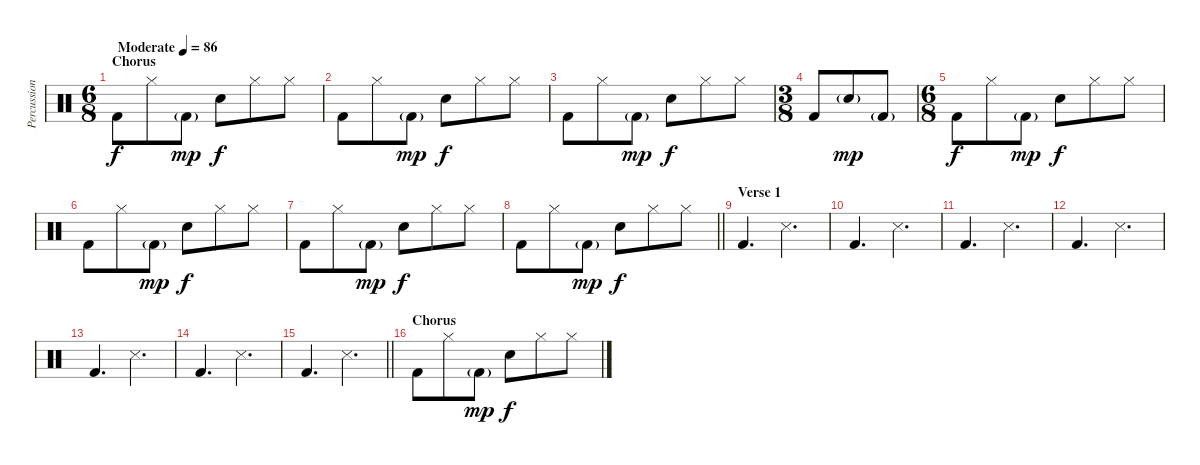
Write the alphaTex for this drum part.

\track ("Percussion" "Percussion") {instrument percussion}
\staff {score}
\articulation defaults
\ts (6 8)
\section ("" "Chorus")
\tempo (86 "Moderate")
\clef neutral
\ks c "Kick (hit) 2".8{dy f} "Hi-Hat (closed)".8 "Kick (hit) 2"{g}.8{dy mp} "Snare (hit) 2".8{dy f} "Hi-Hat (closed)".8 "Hi-Hat (closed)".8
|
"Kick (hit) 2".8 "Hi-Hat (closed)".8 "Kick (hit) 2"{g}.8{dy mp} "Snare (hit) 2".8{dy f} "Hi-Hat (closed)".8 "Hi-Hat (closed)".8 |
"Kick (hit) 2".8 "Hi-Hat (closed)".8 "Kick (hit) 2"{g}.8{dy mp} "Snare (hit) 2".8{dy f} "Hi-Hat (closed)".8 "Hi-Hat (closed)".8 |
\ts (3 8)
"Kick (hit) 2".8 "Snare (hit) 2"{g}.8{dy mp} "Kick (hit) 2"{g}.8 |
\ts (6 8)
"Kick (hit) 2".8{dy f} "Hi-Hat (closed)".8 "Kick (hit) 2"{g}.8{dy mp} "Snare (hit) 2".8{dy f} "Hi-Hat (closed)".8 "Hi-Hat (closed)".8 |
"Kick (hit) 2".8 "Hi-Hat (closed)".8 "Kick (hit) 2"{g}.8{dy mp} "Snare (hit) 2".8{dy f} "Hi-Hat (closed)".8 "Hi-Hat (closed)".8 |
"Kick (hit) 2".8 "Hi-Hat (closed)".8 "Kick (hit) 2"{g}.8{dy mp} "Snare (hit) 2".8{dy f} "Hi-Hat (closed)".8 "Hi-Hat (closed)".8 |
\barLineRight lightlight "Kick (hit) 2".8 "Hi-Hat (closed)".8 "Kick (hit) 2"{g}.8{dy mp} "Snare (hit) 2".8{dy f} "Hi-Hat (closed)".8 "Hi-Hat (closed)".8
|
\section ("" "Verse 1")
"Kick (hit) 2".4{d} "Snare (side stick) 3".4{d} |
"Kick (hit) 2".4{d} "Snare (side stick) 3".4{d} |
"Kick (hit) 2".4{d} "Snare (side stick) 3".4{d} |
"Kick (hit) 2".4{d} "Snare (side stick) 3".4{d} |
"Kick (hit) 2".4{d} "Snare (side stick) 3".4{d} |
"Kick (hit) 2".4{d} "Snare (side stick) 3".4{d} |
\barLineRight lightlight "Kick (hit) 2".4{d} "Snare (side stick) 3".4{d}
|
\section ("" "Chorus")
"Kick (hit) 2".8 "Hi-Hat (closed)".8 "Kick (hit) 2"{g}.8{dy mp} "Snare (hit) 2".8{dy f} "Hi-Hat (closed)".8 "Hi-Hat (closed)".8
